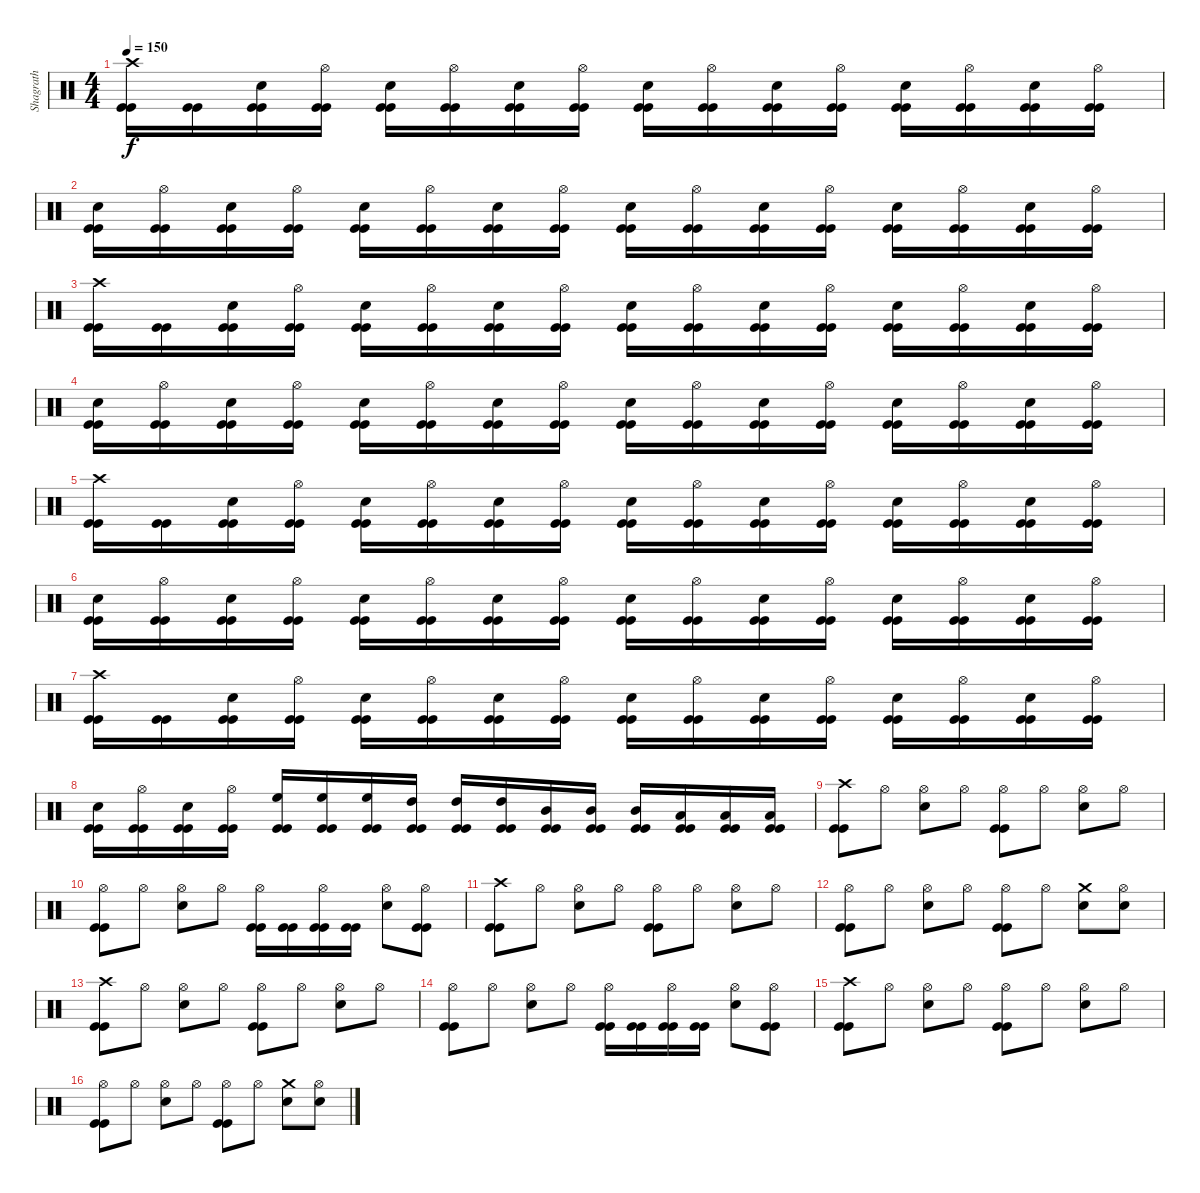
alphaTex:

\track ("Shagrath" "Shagrath") {instrument percussion}
\staff {score}
\articulation defaults
\ts (4 4)
\tempo 150
\clef neutral
\ks c
("Kick (hit)" "Kick (hit)" "Crash high (hit)").16{dy f} ("Kick (hit)" "Kick (hit)").16 ("Kick (hit)" "Kick (hit)" "Electric Snare (hit)").16 ("Kick (hit)" "Kick (hit)" "Hi-Hat (open)").16 ("Kick (hit)" "Kick (hit)" "Electric Snare (hit)").16 ("Kick (hit)" "Kick (hit)" "Hi-Hat (open)").16 ("Kick (hit)" "Kick (hit)" "Electric Snare (hit)").16 ("Kick (hit)" "Kick (hit)" "Hi-Hat (open)").16 ("Kick (hit)" "Kick (hit)" "Electric Snare (hit)").16 ("Kick (hit)" "Kick (hit)" "Hi-Hat (open)").16 ("Kick (hit)" "Kick (hit)" "Electric Snare (hit)").16 ("Kick (hit)" "Kick (hit)" "Hi-Hat (open)").16 ("Kick (hit)" "Kick (hit)" "Electric Snare (hit)").16 ("Kick (hit)" "Kick (hit)" "Hi-Hat (open)").16 ("Kick (hit)" "Kick (hit)" "Electric Snare (hit)").16 ("Kick (hit)" "Kick (hit)" "Hi-Hat (open)").16 |
("Kick (hit)" "Kick (hit)" "Electric Snare (hit)").16 ("Kick (hit)" "Kick (hit)" "Hi-Hat (open)").16 ("Kick (hit)" "Kick (hit)" "Electric Snare (hit)").16 ("Kick (hit)" "Kick (hit)" "Hi-Hat (open)").16 ("Kick (hit)" "Kick (hit)" "Electric Snare (hit)").16 ("Kick (hit)" "Kick (hit)" "Hi-Hat (open)").16 ("Kick (hit)" "Kick (hit)" "Electric Snare (hit)").16 ("Kick (hit)" "Kick (hit)" "Hi-Hat (open)").16 ("Kick (hit)" "Kick (hit)" "Electric Snare (hit)").16 ("Kick (hit)" "Kick (hit)" "Hi-Hat (open)").16 ("Kick (hit)" "Kick (hit)" "Electric Snare (hit)").16 ("Kick (hit)" "Kick (hit)" "Hi-Hat (open)").16 ("Kick (hit)" "Kick (hit)" "Electric Snare (hit)").16 ("Kick (hit)" "Kick (hit)" "Hi-Hat (open)").16 ("Kick (hit)" "Kick (hit)" "Electric Snare (hit)").16 ("Kick (hit)" "Kick (hit)" "Hi-Hat (open)").16 |
("Kick (hit)" "Kick (hit)" "Crash high (hit)").16 ("Kick (hit)" "Kick (hit)").16 ("Kick (hit)" "Kick (hit)" "Electric Snare (hit)").16 ("Kick (hit)" "Kick (hit)" "Hi-Hat (open)").16 ("Kick (hit)" "Kick (hit)" "Electric Snare (hit)").16 ("Kick (hit)" "Kick (hit)" "Hi-Hat (open)").16 ("Kick (hit)" "Kick (hit)" "Electric Snare (hit)").16 ("Kick (hit)" "Kick (hit)" "Hi-Hat (open)").16 ("Kick (hit)" "Kick (hit)" "Electric Snare (hit)").16 ("Kick (hit)" "Kick (hit)" "Hi-Hat (open)").16 ("Kick (hit)" "Kick (hit)" "Electric Snare (hit)").16 ("Kick (hit)" "Kick (hit)" "Hi-Hat (open)").16 ("Kick (hit)" "Kick (hit)" "Electric Snare (hit)").16 ("Kick (hit)" "Kick (hit)" "Hi-Hat (open)").16 ("Kick (hit)" "Kick (hit)" "Electric Snare (hit)").16 ("Kick (hit)" "Kick (hit)" "Hi-Hat (open)").16 |
("Kick (hit)" "Kick (hit)" "Electric Snare (hit)").16 ("Kick (hit)" "Kick (hit)" "Hi-Hat (open)").16 ("Kick (hit)" "Kick (hit)" "Electric Snare (hit)").16 ("Kick (hit)" "Kick (hit)" "Hi-Hat (open)").16 ("Kick (hit)" "Kick (hit)" "Electric Snare (hit)").16 ("Kick (hit)" "Kick (hit)" "Hi-Hat (open)").16 ("Kick (hit)" "Kick (hit)" "Electric Snare (hit)").16 ("Kick (hit)" "Kick (hit)" "Hi-Hat (open)").16 ("Kick (hit)" "Kick (hit)" "Electric Snare (hit)").16 ("Kick (hit)" "Kick (hit)" "Hi-Hat (open)").16 ("Kick (hit)" "Kick (hit)" "Electric Snare (hit)").16 ("Kick (hit)" "Kick (hit)" "Hi-Hat (open)").16 ("Kick (hit)" "Kick (hit)" "Electric Snare (hit)").16 ("Kick (hit)" "Kick (hit)" "Hi-Hat (open)").16 ("Kick (hit)" "Kick (hit)" "Electric Snare (hit)").16 ("Kick (hit)" "Kick (hit)" "Hi-Hat (open)").16 |
("Kick (hit)" "Kick (hit)" "Crash high (hit)").16 ("Kick (hit)" "Kick (hit)").16 ("Kick (hit)" "Kick (hit)" "Electric Snare (hit)").16 ("Kick (hit)" "Kick (hit)" "Hi-Hat (open)").16 ("Kick (hit)" "Kick (hit)" "Electric Snare (hit)").16 ("Kick (hit)" "Kick (hit)" "Hi-Hat (open)").16 ("Kick (hit)" "Kick (hit)" "Electric Snare (hit)").16 ("Kick (hit)" "Kick (hit)" "Hi-Hat (open)").16 ("Kick (hit)" "Kick (hit)" "Electric Snare (hit)").16 ("Kick (hit)" "Kick (hit)" "Hi-Hat (open)").16 ("Kick (hit)" "Kick (hit)" "Electric Snare (hit)").16 ("Kick (hit)" "Kick (hit)" "Hi-Hat (open)").16 ("Kick (hit)" "Kick (hit)" "Electric Snare (hit)").16 ("Kick (hit)" "Kick (hit)" "Hi-Hat (open)").16 ("Kick (hit)" "Kick (hit)" "Electric Snare (hit)").16 ("Kick (hit)" "Kick (hit)" "Hi-Hat (open)").16 |
("Kick (hit)" "Kick (hit)" "Electric Snare (hit)").16 ("Kick (hit)" "Kick (hit)" "Hi-Hat (open)").16 ("Kick (hit)" "Kick (hit)" "Electric Snare (hit)").16 ("Kick (hit)" "Kick (hit)" "Hi-Hat (open)").16 ("Kick (hit)" "Kick (hit)" "Electric Snare (hit)").16 ("Kick (hit)" "Kick (hit)" "Hi-Hat (open)").16 ("Kick (hit)" "Kick (hit)" "Electric Snare (hit)").16 ("Kick (hit)" "Kick (hit)" "Hi-Hat (open)").16 ("Kick (hit)" "Kick (hit)" "Electric Snare (hit)").16 ("Kick (hit)" "Kick (hit)" "Hi-Hat (open)").16 ("Kick (hit)" "Kick (hit)" "Electric Snare (hit)").16 ("Kick (hit)" "Kick (hit)" "Hi-Hat (open)").16 ("Kick (hit)" "Kick (hit)" "Electric Snare (hit)").16 ("Kick (hit)" "Kick (hit)" "Hi-Hat (open)").16 ("Kick (hit)" "Kick (hit)" "Electric Snare (hit)").16 ("Kick (hit)" "Kick (hit)" "Hi-Hat (open)").16 |
("Kick (hit)" "Kick (hit)" "Crash high (hit)").16 ("Kick (hit)" "Kick (hit)").16 ("Kick (hit)" "Kick (hit)" "Electric Snare (hit)").16 ("Kick (hit)" "Kick (hit)" "Hi-Hat (open)").16 ("Kick (hit)" "Kick (hit)" "Electric Snare (hit)").16 ("Kick (hit)" "Kick (hit)" "Hi-Hat (open)").16 ("Kick (hit)" "Kick (hit)" "Electric Snare (hit)").16 ("Kick (hit)" "Kick (hit)" "Hi-Hat (open)").16 ("Kick (hit)" "Kick (hit)" "Electric Snare (hit)").16 ("Kick (hit)" "Kick (hit)" "Hi-Hat (open)").16 ("Kick (hit)" "Kick (hit)" "Electric Snare (hit)").16 ("Kick (hit)" "Kick (hit)" "Hi-Hat (open)").16 ("Kick (hit)" "Kick (hit)" "Electric Snare (hit)").16 ("Kick (hit)" "Kick (hit)" "Hi-Hat (open)").16 ("Kick (hit)" "Kick (hit)" "Electric Snare (hit)").16 ("Kick (hit)" "Kick (hit)" "Hi-Hat (open)").16 |
("Kick (hit)" "Kick (hit)" "Electric Snare (hit)").16 ("Kick (hit)" "Kick (hit)" "Hi-Hat (open)").16 ("Kick (hit)" "Kick (hit)" "Electric Snare (hit)").16 ("Kick (hit)" "Kick (hit)" "Hi-Hat (open)").16 ("Kick (hit)" "Kick (hit)" "High Floor Tom (hit)").16 ("Kick (hit)" "Kick (hit)" "High Floor Tom (hit)").16 ("Kick (hit)" "Kick (hit)" "High Floor Tom (hit)").16 ("Kick (hit)" "Kick (hit)" "High Tom (hit)").16 ("Kick (hit)" "Kick (hit)" "High Tom (hit)").16 ("Kick (hit)" "Kick (hit)" "High Tom (hit)").16 ("Kick (hit)" "Kick (hit)" "Mid Tom (hit)").16 ("Kick (hit)" "Kick (hit)" "Mid Tom (hit)").16 ("Kick (hit)" "Kick (hit)" "Mid Tom (hit)").16 ("Kick (hit)" "Kick (hit)" "Low Tom (hit)").16 ("Kick (hit)" "Kick (hit)" "Low Tom (hit)").16 ("Kick (hit)" "Kick (hit)" "Low Tom (hit)").16 |
("Kick (hit)" "Kick (hit)" "Crash high (hit)").8 "Hi-Hat (open)".8 ("Electric Snare (hit)" "Hi-Hat (open)").8 "Hi-Hat (open)".8 ("Kick (hit)" "Kick (hit)" "Hi-Hat (open)").8 "Hi-Hat (open)".8 ("Electric Snare (hit)" "Hi-Hat (open)").8 "Hi-Hat (open)".8 |
("Kick (hit)" "Kick (hit)" "Hi-Hat (open)").8 "Hi-Hat (open)".8 ("Electric Snare (hit)" "Hi-Hat (open)").8 "Hi-Hat (open)".8 ("Kick (hit)" "Kick (hit)" "Hi-Hat (open)").16 ("Kick (hit)" "Kick (hit)").16 ("Kick (hit)" "Kick (hit)" "Hi-Hat (open)").16 ("Kick (hit)" "Kick (hit)").16 ("Electric Snare (hit)" "Hi-Hat (open)").8 ("Kick (hit)" "Kick (hit)" "Hi-Hat (open)").8 |
("Kick (hit)" "Kick (hit)" "Crash high (hit)").8 "Hi-Hat (open)".8 ("Electric Snare (hit)" "Hi-Hat (open)").8 "Hi-Hat (open)".8 ("Kick (hit)" "Kick (hit)" "Hi-Hat (open)").8 "Hi-Hat (open)".8 ("Electric Snare (hit)" "Hi-Hat (open)").8 "Hi-Hat (open)".8 |
("Kick (hit)" "Kick (hit)" "Hi-Hat (open)").8 "Hi-Hat (open)".8 ("Electric Snare (hit)" "Hi-Hat (open)").8 "Hi-Hat (open)".8 ("Kick (hit)" "Kick (hit)" "Hi-Hat (open)").8 "Hi-Hat (open)".8 ("Electric Snare (hit)" "Crash medium (hit)").8 ("Electric Snare (hit)" "Hi-Hat (open)").8 |
("Kick (hit)" "Kick (hit)" "Crash high (hit)").8 "Hi-Hat (open)".8 ("Electric Snare (hit)" "Hi-Hat (open)").8 "Hi-Hat (open)".8 ("Kick (hit)" "Kick (hit)" "Hi-Hat (open)").8 "Hi-Hat (open)".8 ("Electric Snare (hit)" "Hi-Hat (open)").8 "Hi-Hat (open)".8 |
("Kick (hit)" "Kick (hit)" "Hi-Hat (open)").8 "Hi-Hat (open)".8 ("Electric Snare (hit)" "Hi-Hat (open)").8 "Hi-Hat (open)".8 ("Kick (hit)" "Kick (hit)" "Hi-Hat (open)").16 ("Kick (hit)" "Kick (hit)").16 ("Kick (hit)" "Kick (hit)" "Hi-Hat (open)").16 ("Kick (hit)" "Kick (hit)").16 ("Electric Snare (hit)" "Hi-Hat (open)").8 ("Kick (hit)" "Kick (hit)" "Hi-Hat (open)").8 |
("Kick (hit)" "Kick (hit)" "Crash high (hit)").8 "Hi-Hat (open)".8 ("Electric Snare (hit)" "Hi-Hat (open)").8 "Hi-Hat (open)".8 ("Kick (hit)" "Kick (hit)" "Hi-Hat (open)").8 "Hi-Hat (open)".8 ("Electric Snare (hit)" "Hi-Hat (open)").8 "Hi-Hat (open)".8 |
("Kick (hit)" "Kick (hit)" "Hi-Hat (open)").8 "Hi-Hat (open)".8 ("Electric Snare (hit)" "Hi-Hat (open)").8 "Hi-Hat (open)".8 ("Kick (hit)" "Kick (hit)" "Hi-Hat (open)").8 "Hi-Hat (open)".8 ("Electric Snare (hit)" "Crash medium (hit)").8 ("Electric Snare (hit)" "Hi-Hat (open)").8
